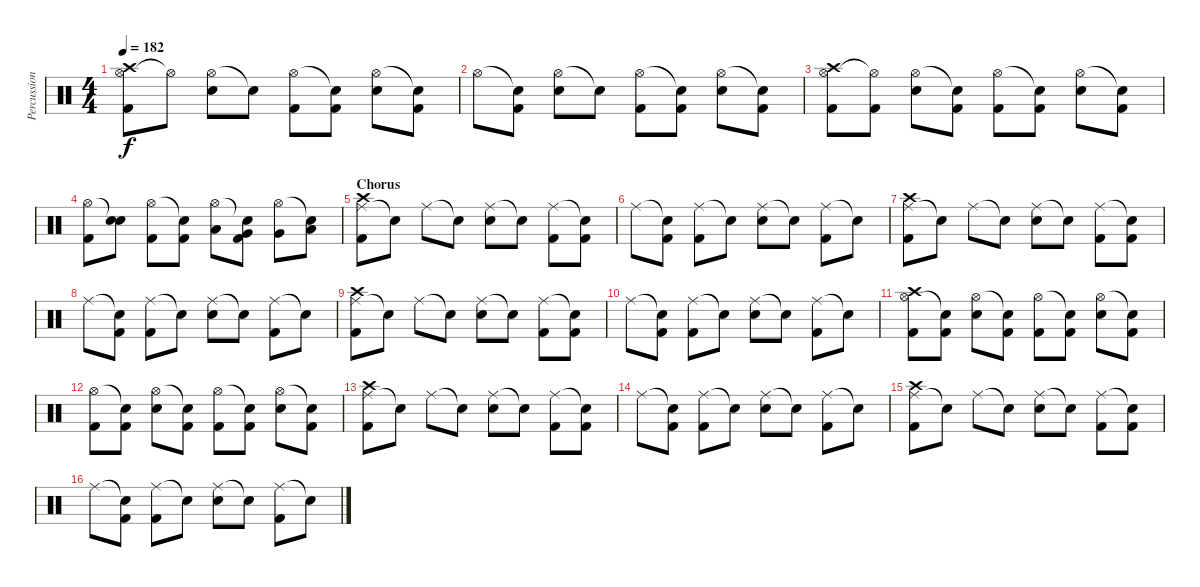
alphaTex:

\track ("Percussion" "Percussion") {instrument percussion}
\staff {score}
\articulation defaults
\ts (4 4)
\tempo 182
\clef neutral
\ks c
("Hi-Hat (open)" "Kick (hit) 2" "Crash high (hit)").8{dy f} "Hi-Hat (open)"{t}.8 ("Hi-Hat (open)" "Electric Snare (hit)").8 "Snare (hit)"{t}.8 ("Hi-Hat (open)" "Kick (hit) 2").8 ("Snare (hit)"{t} "Kick (hit) 2").8 ("Hi-Hat (open)" "Electric Snare (hit)").8 ("Snare (hit)"{t} "Kick (hit) 2").8 |
"Hi-Hat (open)".8 ("Snare (hit)"{t} "Kick (hit) 2").8 ("Hi-Hat (open)" "Electric Snare (hit)").8 "Snare (hit)"{t}.8 ("Hi-Hat (open)" "Kick (hit) 2").8 ("Snare (hit)"{t} "Kick (hit) 2").8 ("Hi-Hat (open)" "Electric Snare (hit)").8 ("Snare (hit)"{t} "Kick (hit) 2").8 |
("Hi-Hat (open)" "Kick (hit) 2" "Crash high (hit)").8 ("Hi-Hat (open)"{t} "Kick (hit) 2").8 ("Hi-Hat (open)" "Electric Snare (hit)").8 ("Snare (hit)"{t} "Kick (hit) 2").8 ("Hi-Hat (open)" "Kick (hit) 2").8 ("Snare (hit)"{t} "Kick (hit) 2").8 ("Hi-Hat (open)" "Electric Snare (hit)").8 ("Snare (hit)"{t} "Kick (hit) 2").8 |
("Hi-Hat (open)" "Kick (hit) 2").8 ("Snare (hit)"{t} "Electric Snare (hit)").8 ("Hi-Hat (open)" "Kick (hit) 2").8 ("Snare (hit)"{t} "Kick (hit) 2").8 ("Hi-Hat (open)" "Low Tom (hit)").8 ("Snare (hit)"{t} "Kick (hit) 2" "Very Low Tom (hit)").8 ("Hi-Hat (open)" "Very Low Tom (hit)").8 ("Snare (hit)"{t} "Low Floor Tom (hit)").8 |
\section ("" "Chorus")
("Ride (middle)" "Kick (hit) 2" "Crash high (hit)").8 "Snare (hit)"{t}.8 "Ride (middle)".8 "Snare (hit)"{t}.8 ("Ride (middle)" "Electric Snare (hit)").8 "Snare (hit)"{t}.8 ("Ride (middle)" "Kick (hit) 2").8 ("Snare (hit)"{t} "Kick (hit) 2").8 |
"Ride (middle)".8 ("Snare (hit)"{t} "Kick (hit) 2").8 ("Ride (middle)" "Kick (hit) 2").8 "Snare (hit)"{t}.8 ("Ride (middle)" "Electric Snare (hit)").8 "Snare (hit)"{t}.8 ("Ride (middle)" "Kick (hit) 2").8 "Snare (hit)"{t}.8 |
("Ride (middle)" "Kick (hit) 2" "Crash high (hit)").8 "Snare (hit)"{t}.8 "Ride (middle)".8 "Snare (hit)"{t}.8 ("Ride (middle)" "Electric Snare (hit)").8 "Snare (hit)"{t}.8 ("Ride (middle)" "Kick (hit) 2").8 ("Snare (hit)"{t} "Kick (hit) 2").8 |
"Ride (middle)".8 ("Snare (hit)"{t} "Kick (hit) 2").8 ("Ride (middle)" "Kick (hit) 2").8 "Snare (hit)"{t}.8 ("Ride (middle)" "Electric Snare (hit)").8 "Snare (hit)"{t}.8 ("Ride (middle)" "Kick (hit) 2").8 "Snare (hit)"{t}.8 |
("Ride (middle)" "Kick (hit) 2" "Crash high (hit)").8 "Snare (hit)"{t}.8 "Ride (middle)".8 "Snare (hit)"{t}.8 ("Ride (middle)" "Electric Snare (hit)").8 "Snare (hit)"{t}.8 ("Ride (middle)" "Kick (hit) 2").8 ("Snare (hit)"{t} "Kick (hit) 2").8 |
"Ride (middle)".8 ("Snare (hit)"{t} "Kick (hit) 2").8 ("Ride (middle)" "Kick (hit) 2").8 "Snare (hit)"{t}.8 ("Ride (middle)" "Electric Snare (hit)").8 "Snare (hit)"{t}.8 ("Ride (middle)" "Kick (hit) 2").8 "Snare (hit)"{t}.8 |
("Hi-Hat (open)" "Kick (hit) 2" "Crash high (hit)").8 ("Snare (hit)"{t} "Kick (hit) 2").8 ("Hi-Hat (open)" "Electric Snare (hit)").8 ("Snare (hit)"{t} "Kick (hit) 2").8 ("Hi-Hat (open)" "Kick (hit) 2").8 ("Snare (hit)"{t} "Kick (hit) 2").8 ("Hi-Hat (open)" "Electric Snare (hit)").8 ("Snare (hit)"{t} "Kick (hit) 2").8 |
("Hi-Hat (open)" "Kick (hit) 2").8 ("Snare (hit)"{t} "Kick (hit) 2").8 ("Hi-Hat (open)" "Electric Snare (hit)").8 ("Snare (hit)"{t} "Kick (hit) 2").8 ("Hi-Hat (open)" "Kick (hit) 2").8 ("Snare (hit)"{t} "Kick (hit) 2").8 ("Hi-Hat (open)" "Electric Snare (hit)").8 ("Snare (hit)"{t} "Kick (hit) 2").8 |
("Ride (middle)" "Kick (hit) 2" "Crash high (hit)").8 "Snare (hit)"{t}.8 "Ride (middle)".8 "Snare (hit)"{t}.8 ("Ride (middle)" "Electric Snare (hit)").8 "Snare (hit)"{t}.8 ("Ride (middle)" "Kick (hit) 2").8 ("Snare (hit)"{t} "Kick (hit) 2").8 |
"Ride (middle)".8 ("Snare (hit)"{t} "Kick (hit) 2").8 ("Ride (middle)" "Kick (hit) 2").8 "Snare (hit)"{t}.8 ("Ride (middle)" "Electric Snare (hit)").8 "Snare (hit)"{t}.8 ("Ride (middle)" "Kick (hit) 2").8 "Snare (hit)"{t}.8 |
("Ride (middle)" "Kick (hit) 2" "Crash high (hit)").8 "Snare (hit)"{t}.8 "Ride (middle)".8 "Snare (hit)"{t}.8 ("Ride (middle)" "Electric Snare (hit)").8 "Snare (hit)"{t}.8 ("Ride (middle)" "Kick (hit) 2").8 ("Snare (hit)"{t} "Kick (hit) 2").8 |
"Ride (middle)".8 ("Snare (hit)"{t} "Kick (hit) 2").8 ("Ride (middle)" "Kick (hit) 2").8 "Snare (hit)"{t}.8 ("Ride (middle)" "Electric Snare (hit)").8 "Snare (hit)"{t}.8 ("Ride (middle)" "Kick (hit) 2").8 "Snare (hit)"{t}.8
